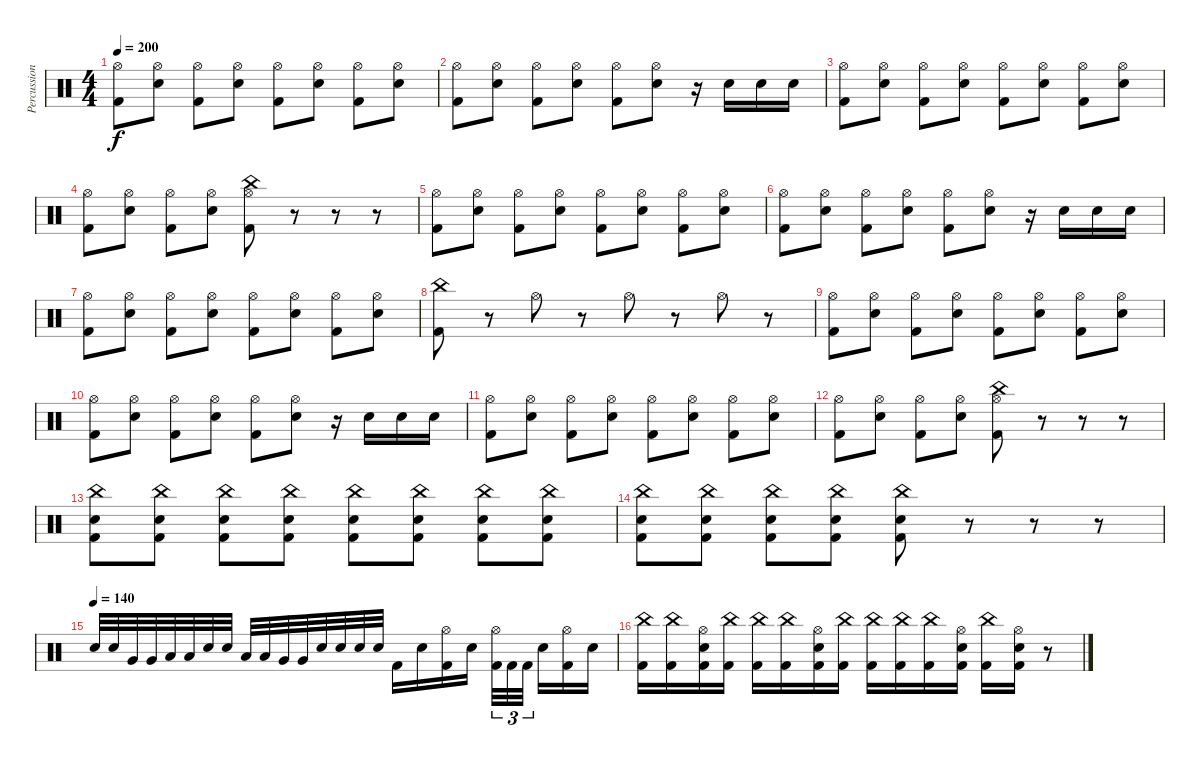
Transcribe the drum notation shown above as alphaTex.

\track ("Percussion" "Percussion") {instrument percussion}
\staff {score}
\articulation defaults
\ts (4 4)
\tempo 200
\clef neutral
\ks c
("Hi-Hat (open)" "Kick (hit) 2").8{dy f} ("Hi-Hat (open)" "Snare (hit) 2").8 ("Hi-Hat (open)" "Kick (hit) 2").8 ("Hi-Hat (open)" "Snare (hit) 2").8 ("Hi-Hat (open)" "Kick (hit) 2").8 ("Hi-Hat (open)" "Snare (hit) 2").8 ("Hi-Hat (open)" "Kick (hit) 2").8 ("Hi-Hat (open)" "Snare (hit) 2").8 |
("Hi-Hat (open)" "Kick (hit) 2").8 ("Hi-Hat (open)" "Snare (hit) 2").8 ("Hi-Hat (open)" "Kick (hit) 2").8 ("Hi-Hat (open)" "Snare (hit) 2").8 ("Hi-Hat (open)" "Kick (hit) 2").8 ("Hi-Hat (open)" "Snare (hit) 2").8 r.16 "Snare (hit) 2".16 "Snare (hit) 2".16 "Snare (hit) 2".16 |
("Hi-Hat (open)" "Kick (hit) 2").8 ("Hi-Hat (open)" "Snare (hit) 2").8 ("Hi-Hat (open)" "Kick (hit) 2").8 ("Hi-Hat (open)" "Snare (hit) 2").8 ("Hi-Hat (open)" "Kick (hit) 2").8 ("Hi-Hat (open)" "Snare (hit) 2").8 ("Hi-Hat (open)" "Kick (hit) 2").8 ("Hi-Hat (open)" "Snare (hit) 2").8 |
("Hi-Hat (open)" "Kick (hit) 2").8 ("Hi-Hat (open)" "Snare (hit) 2").8 ("Hi-Hat (open)" "Kick (hit) 2").8 ("Hi-Hat (open)" "Snare (hit) 2").8 ("Hi-Hat (open)" "China (hit)" "Kick (hit) 2").8 r.8 r.8 r.8 |
("Hi-Hat (open)" "Kick (hit) 2").8 ("Hi-Hat (open)" "Snare (hit) 2").8 ("Hi-Hat (open)" "Kick (hit) 2").8 ("Hi-Hat (open)" "Snare (hit) 2").8 ("Hi-Hat (open)" "Kick (hit) 2").8 ("Hi-Hat (open)" "Snare (hit) 2").8 ("Hi-Hat (open)" "Kick (hit) 2").8 ("Hi-Hat (open)" "Snare (hit) 2").8 |
("Hi-Hat (open)" "Kick (hit) 2").8 ("Hi-Hat (open)" "Snare (hit) 2").8 ("Hi-Hat (open)" "Kick (hit) 2").8 ("Hi-Hat (open)" "Snare (hit) 2").8 ("Hi-Hat (open)" "Kick (hit) 2").8 ("Hi-Hat (open)" "Snare (hit) 2").8 r.16 "Snare (hit) 2".16 "Snare (hit) 2".16 "Snare (hit) 2".16 |
("Hi-Hat (open)" "Kick (hit) 2").8 ("Hi-Hat (open)" "Snare (hit) 2").8 ("Hi-Hat (open)" "Kick (hit) 2").8 ("Hi-Hat (open)" "Snare (hit) 2").8 ("Hi-Hat (open)" "Kick (hit) 2").8 ("Hi-Hat (open)" "Snare (hit) 2").8 ("Hi-Hat (open)" "Kick (hit) 2").8 ("Hi-Hat (open)" "Snare (hit) 2").8 |
("China (hit)" "Kick (hit) 2").8 r.8 "Hi-Hat (open)".8 r.8 "Hi-Hat (open)".8 r.8 "Hi-Hat (open)".8 r.8 |
("Hi-Hat (open)" "Kick (hit) 2").8 ("Hi-Hat (open)" "Snare (hit) 2").8 ("Hi-Hat (open)" "Kick (hit) 2").8 ("Hi-Hat (open)" "Snare (hit) 2").8 ("Hi-Hat (open)" "Kick (hit) 2").8 ("Hi-Hat (open)" "Snare (hit) 2").8 ("Hi-Hat (open)" "Kick (hit) 2").8 ("Hi-Hat (open)" "Snare (hit) 2").8 |
("Hi-Hat (open)" "Kick (hit) 2").8 ("Hi-Hat (open)" "Snare (hit) 2").8 ("Hi-Hat (open)" "Kick (hit) 2").8 ("Hi-Hat (open)" "Snare (hit) 2").8 ("Hi-Hat (open)" "Kick (hit) 2").8 ("Hi-Hat (open)" "Snare (hit) 2").8 r.16 "Snare (hit) 2".16 "Snare (hit) 2".16 "Snare (hit) 2".16 |
("Hi-Hat (open)" "Kick (hit) 2").8 ("Hi-Hat (open)" "Snare (hit) 2").8 ("Hi-Hat (open)" "Kick (hit) 2").8 ("Hi-Hat (open)" "Snare (hit) 2").8 ("Hi-Hat (open)" "Kick (hit) 2").8 ("Hi-Hat (open)" "Snare (hit) 2").8 ("Hi-Hat (open)" "Kick (hit) 2").8 ("Hi-Hat (open)" "Snare (hit) 2").8 |
("Hi-Hat (open)" "Kick (hit) 2").8 ("Hi-Hat (open)" "Snare (hit) 2").8 ("Hi-Hat (open)" "Kick (hit) 2").8 ("Hi-Hat (open)" "Snare (hit) 2").8 ("Hi-Hat (open)" "China (hit)" "Kick (hit) 2").8 r.8 r.8 r.8 |
("China (hit)" "Snare (hit) 2" "Kick (hit) 2").8 ("China (hit)" "Snare (hit) 2" "Kick (hit) 2").8 ("China (hit)" "Snare (hit) 2" "Kick (hit) 2").8 ("China (hit)" "Snare (hit) 2" "Kick (hit) 2").8 ("China (hit)" "Snare (hit) 2" "Kick (hit) 2").8 ("China (hit)" "Snare (hit) 2" "Kick (hit) 2").8 ("China (hit)" "Snare (hit) 2" "Kick (hit) 2").8 ("China (hit)" "Snare (hit) 2" "Kick (hit) 2").8 |
("China (hit)" "Snare (hit) 2" "Kick (hit) 2").8 ("China (hit)" "Snare (hit) 2" "Kick (hit) 2").8 ("China (hit)" "Snare (hit) 2" "Kick (hit) 2").8 ("China (hit)" "Snare (hit) 2" "Kick (hit) 2").8 ("China (hit)" "Snare (hit) 2" "Kick (hit) 2").8 r.8 r.8 r.8 |
\tempo (140)
"Snare (hit) 2".32 "Snare (hit) 2".32 "Very Low Tom (hit)".32 "Very Low Tom (hit)".32 "Low Floor Tom (hit)".32 "Low Floor Tom (hit)".32 "Snare (hit) 2".32 "Snare (hit) 2".32 "Low Tom (hit)".32 "Low Tom (hit)".32 "Very Low Tom (hit)".32 "Very Low Tom (hit)".32 "Snare (hit) 2".32 "Snare (hit) 2".32 "Snare (hit) 2".32 "Snare (hit) 2".32 "Kick (hit) 2".16 "Snare (hit) 2".16 ("Hi-Hat (open)" "Kick (hit) 2").16 "Snare (hit) 2".16 ("Hi-Hat (open)" "Kick (hit) 2").32{tu (3 2)} "Kick (hit) 2".32{tu (3 2)} "Kick (hit) 2".32{tu (3 2)} "Snare (hit) 2".16 ("Hi-Hat (open)" "Kick (hit) 2").16 "Snare (hit) 2".16 |
("China (hit)" "Kick (hit) 2").16 ("China (hit)" "Kick (hit) 2").16 ("Hi-Hat (open)" "Snare (hit) 2" "Kick (hit) 2").16 ("China (hit)" "Kick (hit) 2").16 ("China (hit)" "Kick (hit) 2").16 ("China (hit)" "Kick (hit) 2").16 ("Hi-Hat (open)" "Snare (hit) 2" "Kick (hit) 2").16 ("China (hit)" "Kick (hit) 2").16 ("China (hit)" "Kick (hit) 2").16 ("China (hit)" "Kick (hit) 2").16 ("China (hit)" "Kick (hit) 2").16 ("Hi-Hat (open)" "Snare (hit) 2" "Kick (hit) 2").16 ("China (hit)" "Kick (hit) 2").16 ("Hi-Hat (open)" "Snare (hit) 2" "Kick (hit) 2").16 r.8
